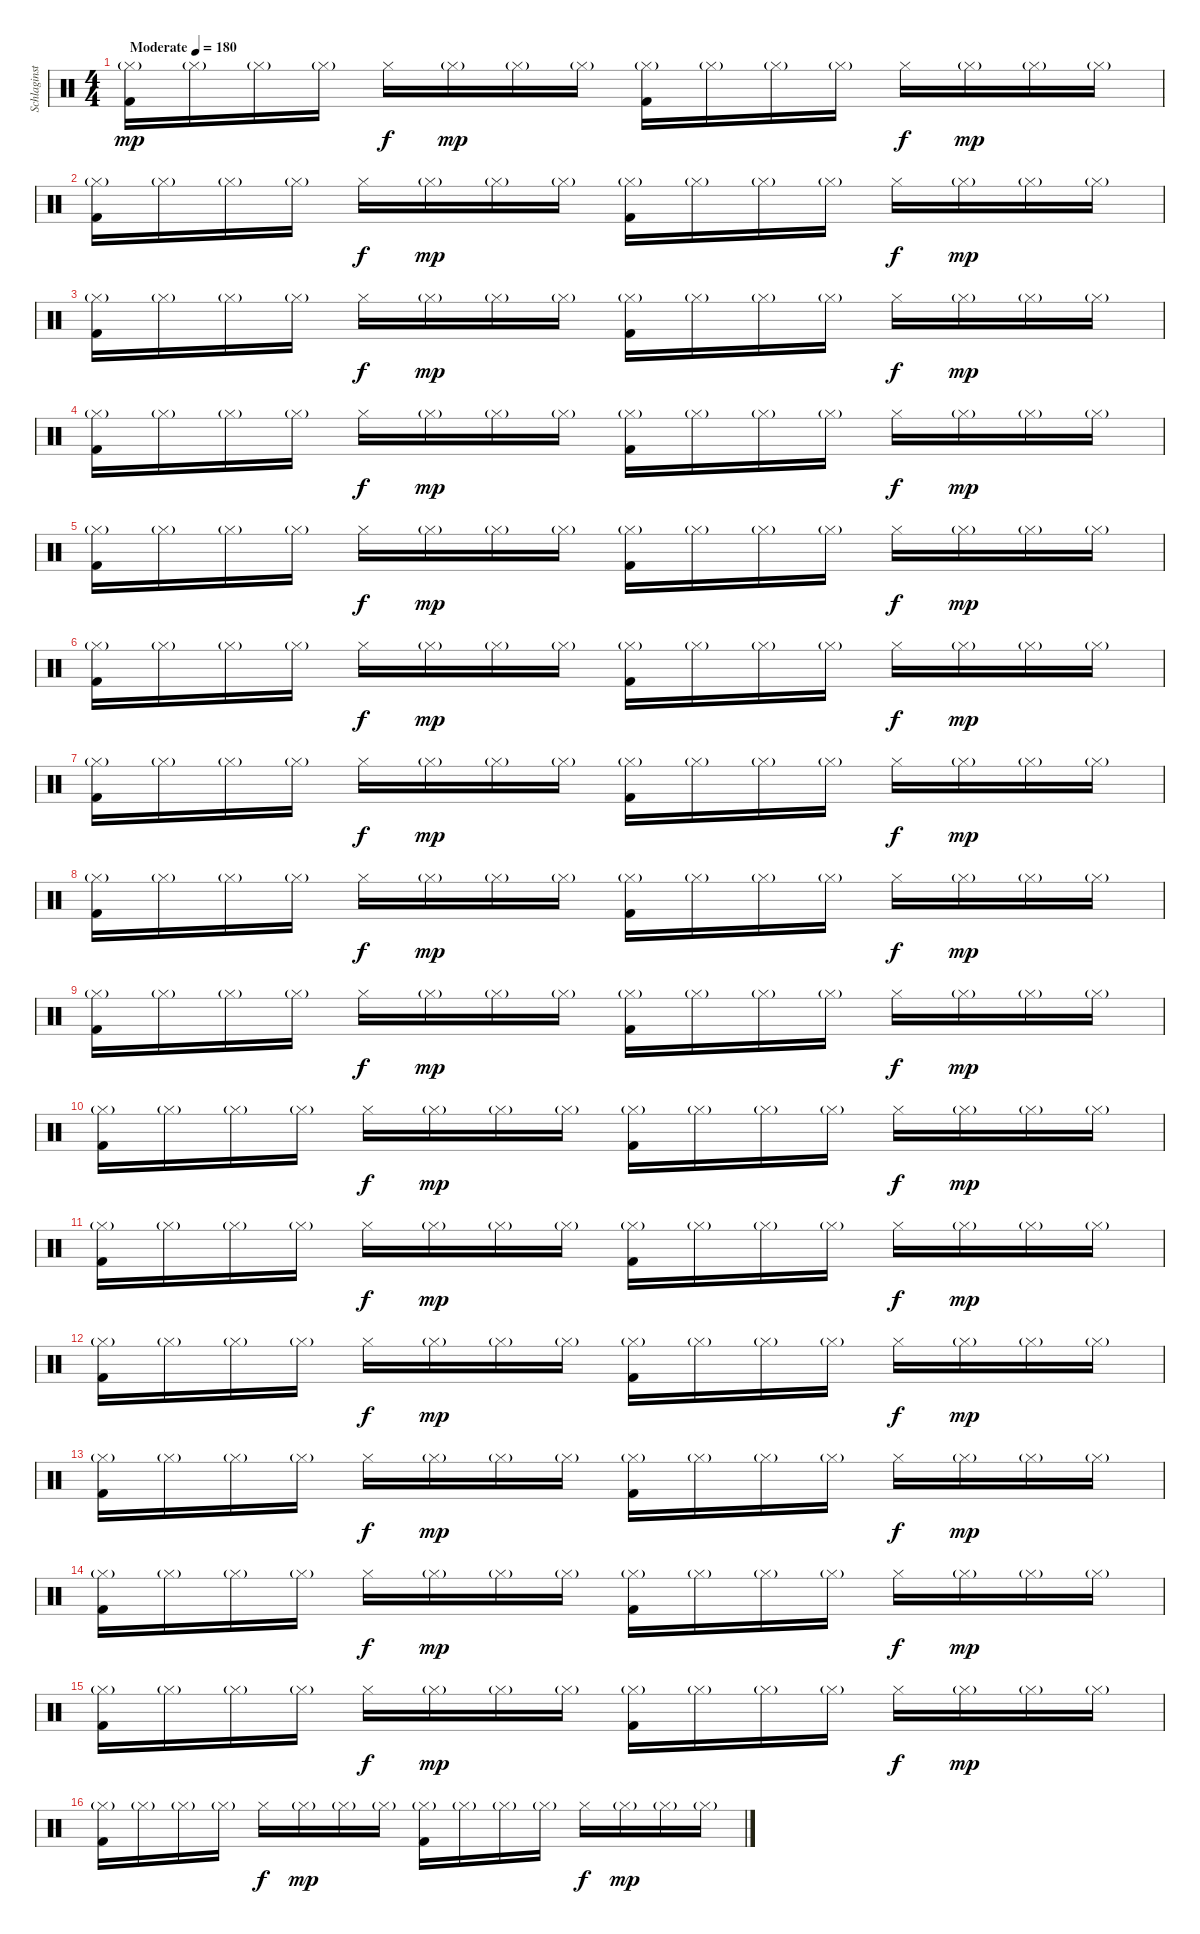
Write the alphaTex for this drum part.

\track ("Schlaginstrumente - Auswahl" "Schlaginst") {instrument percussion}
\staff {score}
\articulation defaults
\ts (4 4)
\tempo (180 "Moderate")
\clef neutral
\ks c
("Hi-Hat (closed)"{g} "Kick (hit) 2").16{dy mp} "Hi-Hat (closed)"{g}.16 "Hi-Hat (closed)"{g}.16 "Hi-Hat (closed)"{g}.16 "Hi-Hat (closed)".16{dy f} "Hi-Hat (closed)"{g}.16{dy mp} "Hi-Hat (closed)"{g}.16 "Hi-Hat (closed)"{g}.16 ("Hi-Hat (closed)"{g} "Kick (hit) 2").16 "Hi-Hat (closed)"{g}.16 "Hi-Hat (closed)"{g}.16 "Hi-Hat (closed)"{g}.16 "Hi-Hat (closed)".16{dy f} "Hi-Hat (closed)"{g}.16{dy mp} "Hi-Hat (closed)"{g}.16 "Hi-Hat (closed)"{g}.16 |
("Hi-Hat (closed)"{g} "Kick (hit) 2").16 "Hi-Hat (closed)"{g}.16 "Hi-Hat (closed)"{g}.16 "Hi-Hat (closed)"{g}.16 "Hi-Hat (closed)".16{dy f} "Hi-Hat (closed)"{g}.16{dy mp} "Hi-Hat (closed)"{g}.16 "Hi-Hat (closed)"{g}.16 ("Hi-Hat (closed)"{g} "Kick (hit) 2").16 "Hi-Hat (closed)"{g}.16 "Hi-Hat (closed)"{g}.16 "Hi-Hat (closed)"{g}.16 "Hi-Hat (closed)".16{dy f} "Hi-Hat (closed)"{g}.16{dy mp} "Hi-Hat (closed)"{g}.16 "Hi-Hat (closed)"{g}.16 |
("Hi-Hat (closed)"{g} "Kick (hit) 2").16 "Hi-Hat (closed)"{g}.16 "Hi-Hat (closed)"{g}.16 "Hi-Hat (closed)"{g}.16 "Hi-Hat (closed)".16{dy f} "Hi-Hat (closed)"{g}.16{dy mp} "Hi-Hat (closed)"{g}.16 "Hi-Hat (closed)"{g}.16 ("Hi-Hat (closed)"{g} "Kick (hit) 2").16 "Hi-Hat (closed)"{g}.16 "Hi-Hat (closed)"{g}.16 "Hi-Hat (closed)"{g}.16 "Hi-Hat (closed)".16{dy f} "Hi-Hat (closed)"{g}.16{dy mp} "Hi-Hat (closed)"{g}.16 "Hi-Hat (closed)"{g}.16 |
("Hi-Hat (closed)"{g} "Kick (hit) 2").16 "Hi-Hat (closed)"{g}.16 "Hi-Hat (closed)"{g}.16 "Hi-Hat (closed)"{g}.16 "Hi-Hat (closed)".16{dy f} "Hi-Hat (closed)"{g}.16{dy mp} "Hi-Hat (closed)"{g}.16 "Hi-Hat (closed)"{g}.16 ("Hi-Hat (closed)"{g} "Kick (hit) 2").16 "Hi-Hat (closed)"{g}.16 "Hi-Hat (closed)"{g}.16 "Hi-Hat (closed)"{g}.16 "Hi-Hat (closed)".16{dy f} "Hi-Hat (closed)"{g}.16{dy mp} "Hi-Hat (closed)"{g}.16 "Hi-Hat (closed)"{g}.16 |
("Hi-Hat (closed)"{g} "Kick (hit) 2").16 "Hi-Hat (closed)"{g}.16 "Hi-Hat (closed)"{g}.16 "Hi-Hat (closed)"{g}.16 "Hi-Hat (closed)".16{dy f} "Hi-Hat (closed)"{g}.16{dy mp} "Hi-Hat (closed)"{g}.16 "Hi-Hat (closed)"{g}.16 ("Hi-Hat (closed)"{g} "Kick (hit) 2").16 "Hi-Hat (closed)"{g}.16 "Hi-Hat (closed)"{g}.16 "Hi-Hat (closed)"{g}.16 "Hi-Hat (closed)".16{dy f} "Hi-Hat (closed)"{g}.16{dy mp} "Hi-Hat (closed)"{g}.16 "Hi-Hat (closed)"{g}.16 |
("Hi-Hat (closed)"{g} "Kick (hit) 2").16 "Hi-Hat (closed)"{g}.16 "Hi-Hat (closed)"{g}.16 "Hi-Hat (closed)"{g}.16 "Hi-Hat (closed)".16{dy f} "Hi-Hat (closed)"{g}.16{dy mp} "Hi-Hat (closed)"{g}.16 "Hi-Hat (closed)"{g}.16 ("Hi-Hat (closed)"{g} "Kick (hit) 2").16 "Hi-Hat (closed)"{g}.16 "Hi-Hat (closed)"{g}.16 "Hi-Hat (closed)"{g}.16 "Hi-Hat (closed)".16{dy f} "Hi-Hat (closed)"{g}.16{dy mp} "Hi-Hat (closed)"{g}.16 "Hi-Hat (closed)"{g}.16 |
("Hi-Hat (closed)"{g} "Kick (hit) 2").16 "Hi-Hat (closed)"{g}.16 "Hi-Hat (closed)"{g}.16 "Hi-Hat (closed)"{g}.16 "Hi-Hat (closed)".16{dy f} "Hi-Hat (closed)"{g}.16{dy mp} "Hi-Hat (closed)"{g}.16 "Hi-Hat (closed)"{g}.16 ("Hi-Hat (closed)"{g} "Kick (hit) 2").16 "Hi-Hat (closed)"{g}.16 "Hi-Hat (closed)"{g}.16 "Hi-Hat (closed)"{g}.16 "Hi-Hat (closed)".16{dy f} "Hi-Hat (closed)"{g}.16{dy mp} "Hi-Hat (closed)"{g}.16 "Hi-Hat (closed)"{g}.16 |
("Hi-Hat (closed)"{g} "Kick (hit) 2").16 "Hi-Hat (closed)"{g}.16 "Hi-Hat (closed)"{g}.16 "Hi-Hat (closed)"{g}.16 "Hi-Hat (closed)".16{dy f} "Hi-Hat (closed)"{g}.16{dy mp} "Hi-Hat (closed)"{g}.16 "Hi-Hat (closed)"{g}.16 ("Hi-Hat (closed)"{g} "Kick (hit) 2").16 "Hi-Hat (closed)"{g}.16 "Hi-Hat (closed)"{g}.16 "Hi-Hat (closed)"{g}.16 "Hi-Hat (closed)".16{dy f} "Hi-Hat (closed)"{g}.16{dy mp} "Hi-Hat (closed)"{g}.16 "Hi-Hat (closed)"{g}.16 |
("Hi-Hat (closed)"{g} "Kick (hit) 2").16 "Hi-Hat (closed)"{g}.16 "Hi-Hat (closed)"{g}.16 "Hi-Hat (closed)"{g}.16 "Hi-Hat (closed)".16{dy f} "Hi-Hat (closed)"{g}.16{dy mp} "Hi-Hat (closed)"{g}.16 "Hi-Hat (closed)"{g}.16 ("Hi-Hat (closed)"{g} "Kick (hit) 2").16 "Hi-Hat (closed)"{g}.16 "Hi-Hat (closed)"{g}.16 "Hi-Hat (closed)"{g}.16 "Hi-Hat (closed)".16{dy f} "Hi-Hat (closed)"{g}.16{dy mp} "Hi-Hat (closed)"{g}.16 "Hi-Hat (closed)"{g}.16 |
("Hi-Hat (closed)"{g} "Kick (hit) 2").16 "Hi-Hat (closed)"{g}.16 "Hi-Hat (closed)"{g}.16 "Hi-Hat (closed)"{g}.16 "Hi-Hat (closed)".16{dy f} "Hi-Hat (closed)"{g}.16{dy mp} "Hi-Hat (closed)"{g}.16 "Hi-Hat (closed)"{g}.16 ("Hi-Hat (closed)"{g} "Kick (hit) 2").16 "Hi-Hat (closed)"{g}.16 "Hi-Hat (closed)"{g}.16 "Hi-Hat (closed)"{g}.16 "Hi-Hat (closed)".16{dy f} "Hi-Hat (closed)"{g}.16{dy mp} "Hi-Hat (closed)"{g}.16 "Hi-Hat (closed)"{g}.16 |
("Hi-Hat (closed)"{g} "Kick (hit) 2").16 "Hi-Hat (closed)"{g}.16 "Hi-Hat (closed)"{g}.16 "Hi-Hat (closed)"{g}.16 "Hi-Hat (closed)".16{dy f} "Hi-Hat (closed)"{g}.16{dy mp} "Hi-Hat (closed)"{g}.16 "Hi-Hat (closed)"{g}.16 ("Hi-Hat (closed)"{g} "Kick (hit) 2").16 "Hi-Hat (closed)"{g}.16 "Hi-Hat (closed)"{g}.16 "Hi-Hat (closed)"{g}.16 "Hi-Hat (closed)".16{dy f} "Hi-Hat (closed)"{g}.16{dy mp} "Hi-Hat (closed)"{g}.16 "Hi-Hat (closed)"{g}.16 |
("Hi-Hat (closed)"{g} "Kick (hit) 2").16 "Hi-Hat (closed)"{g}.16 "Hi-Hat (closed)"{g}.16 "Hi-Hat (closed)"{g}.16 "Hi-Hat (closed)".16{dy f} "Hi-Hat (closed)"{g}.16{dy mp} "Hi-Hat (closed)"{g}.16 "Hi-Hat (closed)"{g}.16 ("Hi-Hat (closed)"{g} "Kick (hit) 2").16 "Hi-Hat (closed)"{g}.16 "Hi-Hat (closed)"{g}.16 "Hi-Hat (closed)"{g}.16 "Hi-Hat (closed)".16{dy f} "Hi-Hat (closed)"{g}.16{dy mp} "Hi-Hat (closed)"{g}.16 "Hi-Hat (closed)"{g}.16 |
("Hi-Hat (closed)"{g} "Kick (hit) 2").16 "Hi-Hat (closed)"{g}.16 "Hi-Hat (closed)"{g}.16 "Hi-Hat (closed)"{g}.16 "Hi-Hat (closed)".16{dy f} "Hi-Hat (closed)"{g}.16{dy mp} "Hi-Hat (closed)"{g}.16 "Hi-Hat (closed)"{g}.16 ("Hi-Hat (closed)"{g} "Kick (hit) 2").16 "Hi-Hat (closed)"{g}.16 "Hi-Hat (closed)"{g}.16 "Hi-Hat (closed)"{g}.16 "Hi-Hat (closed)".16{dy f} "Hi-Hat (closed)"{g}.16{dy mp} "Hi-Hat (closed)"{g}.16 "Hi-Hat (closed)"{g}.16 |
("Hi-Hat (closed)"{g} "Kick (hit) 2").16 "Hi-Hat (closed)"{g}.16 "Hi-Hat (closed)"{g}.16 "Hi-Hat (closed)"{g}.16 "Hi-Hat (closed)".16{dy f} "Hi-Hat (closed)"{g}.16{dy mp} "Hi-Hat (closed)"{g}.16 "Hi-Hat (closed)"{g}.16 ("Hi-Hat (closed)"{g} "Kick (hit) 2").16 "Hi-Hat (closed)"{g}.16 "Hi-Hat (closed)"{g}.16 "Hi-Hat (closed)"{g}.16 "Hi-Hat (closed)".16{dy f} "Hi-Hat (closed)"{g}.16{dy mp} "Hi-Hat (closed)"{g}.16 "Hi-Hat (closed)"{g}.16 |
("Hi-Hat (closed)"{g} "Kick (hit) 2").16 "Hi-Hat (closed)"{g}.16 "Hi-Hat (closed)"{g}.16 "Hi-Hat (closed)"{g}.16 "Hi-Hat (closed)".16{dy f} "Hi-Hat (closed)"{g}.16{dy mp} "Hi-Hat (closed)"{g}.16 "Hi-Hat (closed)"{g}.16 ("Hi-Hat (closed)"{g} "Kick (hit) 2").16 "Hi-Hat (closed)"{g}.16 "Hi-Hat (closed)"{g}.16 "Hi-Hat (closed)"{g}.16 "Hi-Hat (closed)".16{dy f} "Hi-Hat (closed)"{g}.16{dy mp} "Hi-Hat (closed)"{g}.16 "Hi-Hat (closed)"{g}.16 |
("Hi-Hat (closed)"{g} "Kick (hit) 2").16 "Hi-Hat (closed)"{g}.16 "Hi-Hat (closed)"{g}.16 "Hi-Hat (closed)"{g}.16 "Hi-Hat (closed)".16{dy f} "Hi-Hat (closed)"{g}.16{dy mp} "Hi-Hat (closed)"{g}.16 "Hi-Hat (closed)"{g}.16 ("Hi-Hat (closed)"{g} "Kick (hit) 2").16 "Hi-Hat (closed)"{g}.16 "Hi-Hat (closed)"{g}.16 "Hi-Hat (closed)"{g}.16 "Hi-Hat (closed)".16{dy f} "Hi-Hat (closed)"{g}.16{dy mp} "Hi-Hat (closed)"{g}.16 "Hi-Hat (closed)"{g}.16
